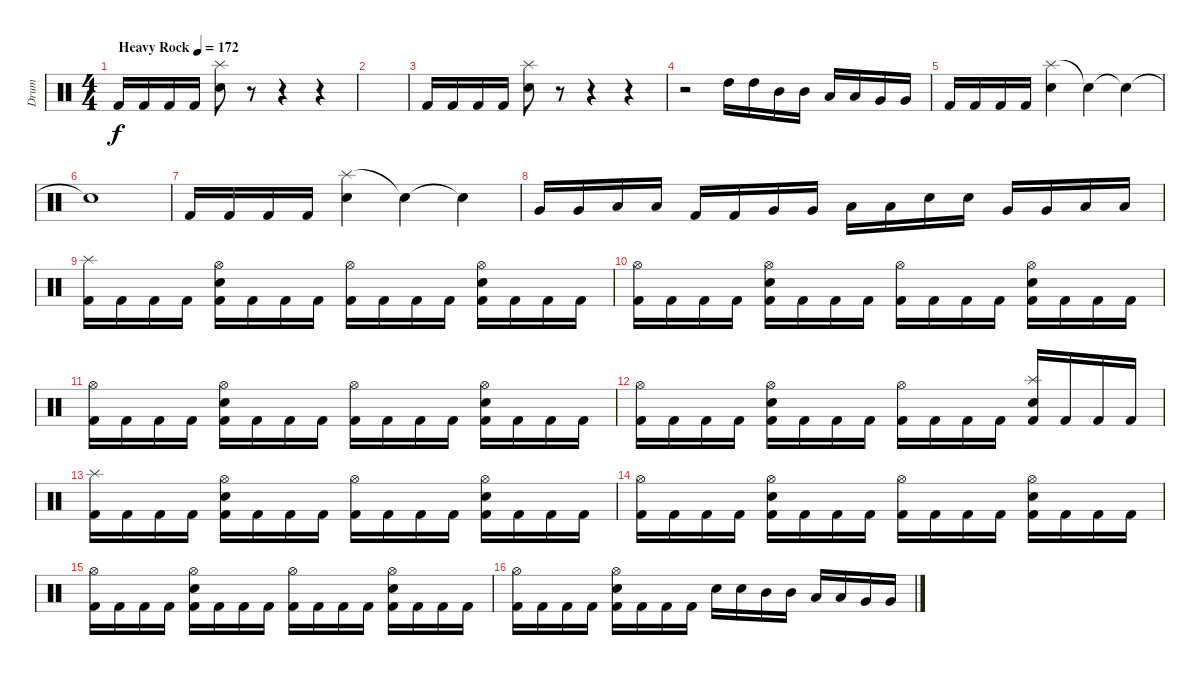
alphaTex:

\track ("Drum" "Drum") {instrument percussion}
\staff {score}
\articulation defaults
\ts (4 4)
\tempo (172 "Heavy Rock")
\clef neutral
\ks c "Kick (hit) 2".16{dy f} "Kick (hit) 2".16 "Kick (hit) 2".16 "Kick (hit) 2".16
("Splash (hit)" "Electric Snare (hit)").8 r.8 r.4 r.4 |
|
"Kick (hit) 2".16 "Kick (hit) 2".16 "Kick (hit) 2".16 "Kick (hit) 2".16 ("Splash (hit)" "Electric Snare (hit)").8 r.8 r.4 r.4 |
r.2 "High Tom (hit)".16 "High Tom (hit)".16 "Mid Tom (hit)".16 "Mid Tom (hit)".16 "Low Tom (hit)".16 "Low Tom (hit)".16 "Very Low Tom (hit)".16 "Very Low Tom (hit)".16 |
"Kick (hit) 2".16 "Kick (hit) 2".16 "Kick (hit) 2".16 "Kick (hit) 2".16 ("Splash (hit)" "Electric Snare (hit)").4 "Snare (hit)"{t}.4 "Snare (hit)"{t}.4 |
"Snare (hit)"{t}.1 |
"Kick (hit) 2".16 "Kick (hit) 2".16 "Kick (hit) 2".16 "Kick (hit) 2".16 ("Splash (hit)" "Electric Snare (hit)").4 "Snare (hit)"{t}.4 "Snare (hit)"{t}.4 |
"Very Low Tom (hit)".16 "Very Low Tom (hit)".16 "Low Floor Tom (hit)".16 "Low Floor Tom (hit)".16 "Kick (hit) 2".16 "Kick (hit) 2".16 "Very Low Tom (hit)".16 "Very Low Tom (hit)".16 "Low Floor Tom (hit)".16 "Low Floor Tom (hit)".16 "Electric Snare (hit)".16 "Electric Snare (hit)".16 "Very Low Tom (hit)".16 "Very Low Tom (hit)".16 "Low Floor Tom (hit)".16 "Low Floor Tom (hit)".16 |
("Kick (hit) 2" "Splash (hit)").16 "Kick (hit) 2".16 "Kick (hit) 2".16 "Kick (hit) 2".16 ("Kick (hit) 2" "Hi-Hat (open)" "Electric Snare (hit)").16 "Kick (hit) 2".16 "Kick (hit) 2".16 "Kick (hit) 2".16 ("Kick (hit) 2" "Hi-Hat (open)").16 "Kick (hit) 2".16 "Kick (hit) 2".16 "Kick (hit) 2".16 ("Kick (hit) 2" "Hi-Hat (open)" "Electric Snare (hit)").16 "Kick (hit) 2".16 "Kick (hit) 2".16 "Kick (hit) 2".16 |
("Kick (hit) 2" "Hi-Hat (open)").16 "Kick (hit) 2".16 "Kick (hit) 2".16 "Kick (hit) 2".16 ("Kick (hit) 2" "Hi-Hat (open)" "Electric Snare (hit)").16 "Kick (hit) 2".16 "Kick (hit) 2".16 "Kick (hit) 2".16 ("Kick (hit) 2" "Hi-Hat (open)").16 "Kick (hit) 2".16 "Kick (hit) 2".16 "Kick (hit) 2".16 ("Kick (hit) 2" "Hi-Hat (open)" "Electric Snare (hit)").16 "Kick (hit) 2".16 "Kick (hit) 2".16 "Kick (hit) 2".16 |
("Kick (hit) 2" "Hi-Hat (open)").16 "Kick (hit) 2".16 "Kick (hit) 2".16 "Kick (hit) 2".16 ("Kick (hit) 2" "Hi-Hat (open)" "Electric Snare (hit)").16 "Kick (hit) 2".16 "Kick (hit) 2".16 "Kick (hit) 2".16 ("Kick (hit) 2" "Hi-Hat (open)").16 "Kick (hit) 2".16 "Kick (hit) 2".16 "Kick (hit) 2".16 ("Kick (hit) 2" "Hi-Hat (open)" "Electric Snare (hit)").16 "Kick (hit) 2".16 "Kick (hit) 2".16 "Kick (hit) 2".16 |
("Kick (hit) 2" "Hi-Hat (open)").16 "Kick (hit) 2".16 "Kick (hit) 2".16 "Kick (hit) 2".16 ("Kick (hit) 2" "Hi-Hat (open)" "Electric Snare (hit)").16 "Kick (hit) 2".16 "Kick (hit) 2".16 "Kick (hit) 2".16 ("Kick (hit) 2" "Hi-Hat (open)").16 "Kick (hit) 2".16 "Kick (hit) 2".16 "Kick (hit) 2".16 ("Kick (hit) 2" "Splash (hit)" "Electric Snare (hit)").16 "Kick (hit) 2".16 "Kick (hit) 2".16 "Kick (hit) 2".16 |
("Kick (hit) 2" "Splash (hit)").16 "Kick (hit) 2".16 "Kick (hit) 2".16 "Kick (hit) 2".16 ("Kick (hit) 2" "Hi-Hat (open)" "Electric Snare (hit)").16 "Kick (hit) 2".16 "Kick (hit) 2".16 "Kick (hit) 2".16 ("Kick (hit) 2" "Hi-Hat (open)").16 "Kick (hit) 2".16 "Kick (hit) 2".16 "Kick (hit) 2".16 ("Kick (hit) 2" "Hi-Hat (open)" "Electric Snare (hit)").16 "Kick (hit) 2".16 "Kick (hit) 2".16 "Kick (hit) 2".16 |
("Kick (hit) 2" "Hi-Hat (open)").16 "Kick (hit) 2".16 "Kick (hit) 2".16 "Kick (hit) 2".16 ("Kick (hit) 2" "Hi-Hat (open)" "Electric Snare (hit)").16 "Kick (hit) 2".16 "Kick (hit) 2".16 "Kick (hit) 2".16 ("Kick (hit) 2" "Hi-Hat (open)").16 "Kick (hit) 2".16 "Kick (hit) 2".16 "Kick (hit) 2".16 ("Kick (hit) 2" "Hi-Hat (open)" "Electric Snare (hit)").16 "Kick (hit) 2".16 "Kick (hit) 2".16 "Kick (hit) 2".16 |
("Kick (hit) 2" "Hi-Hat (open)").16 "Kick (hit) 2".16 "Kick (hit) 2".16 "Kick (hit) 2".16 ("Kick (hit) 2" "Hi-Hat (open)" "Electric Snare (hit)").16 "Kick (hit) 2".16 "Kick (hit) 2".16 "Kick (hit) 2".16 ("Kick (hit) 2" "Hi-Hat (open)").16 "Kick (hit) 2".16 "Kick (hit) 2".16 "Kick (hit) 2".16 ("Kick (hit) 2" "Hi-Hat (open)" "Electric Snare (hit)").16 "Kick (hit) 2".16 "Kick (hit) 2".16 "Kick (hit) 2".16 |
("Kick (hit) 2" "Hi-Hat (open)").16 "Kick (hit) 2".16 "Kick (hit) 2".16 "Kick (hit) 2".16 ("Kick (hit) 2" "Hi-Hat (open)" "Electric Snare (hit)").16 "Kick (hit) 2".16 "Kick (hit) 2".16 "Kick (hit) 2".16 "Electric Snare (hit)".16 "Electric Snare (hit)".16 "Mid Tom (hit)".16 "Mid Tom (hit)".16 "Low Tom (hit)".16 "Low Tom (hit)".16 "Very Low Tom (hit)".16 "Very Low Tom (hit)".16
